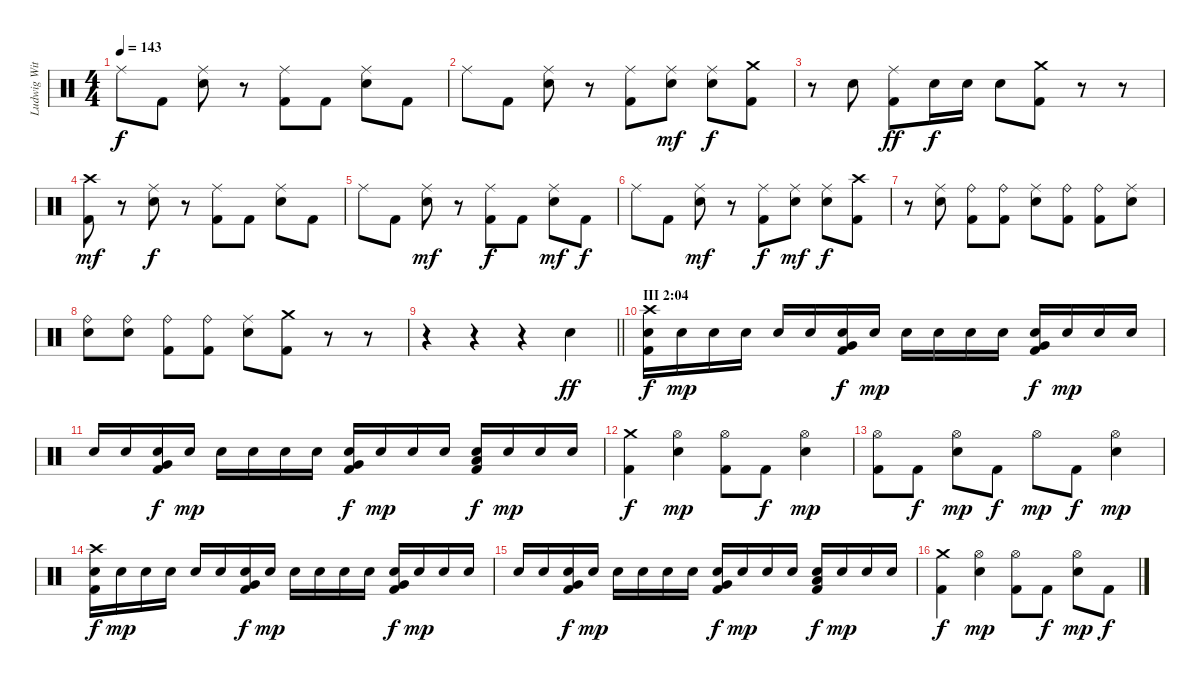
\track ("Ludwig Witt (Drums)" "Ludwig Wit") {instrument percussion}
\staff {score}
\articulation defaults
\ts (4 4)
\tempo 143
\clef neutral
\ks c "Ride (middle)".8{dy f} "Kick (hit) 2".8
("Ride (middle)" "Electric Snare (hit)").8 r.8 ("Ride (middle)" "Kick (hit) 2").8 "Kick (hit) 2".8 ("Ride (middle)" "Electric Snare (hit)").8 "Kick (hit) 2".8 |
"Ride (middle)".8 "Kick (hit) 2".8 ("Ride (middle)" "Electric Snare (hit)").8 r.8 ("Ride (middle)" "Kick (hit) 2").8 ("Ride (middle)" "Electric Snare (hit)").8{dy mf} ("Ride (middle)" "Electric Snare (hit)").8{dy f} ("Crash medium (hit)" "Kick (hit) 2").8 |
r.8 "Electric Snare (hit)".8 ("Ride (middle)" "Kick (hit) 2").8{dy ff} "Electric Snare (hit)".16{dy f} "Electric Snare (hit)".16 "Electric Snare (hit)".8 ("Crash medium (hit)" "Kick (hit) 2").8 r.8 r.8 |
("Crash high (hit)" "Kick (hit) 2").8{dy mf} r.8 ("Ride (middle)" "Electric Snare (hit)").8{dy f} r.8 ("Ride (middle)" "Kick (hit) 2").8 "Kick (hit) 2".8 ("Ride (middle)" "Electric Snare (hit)").8 "Kick (hit) 2".8 |
"Ride (middle)".8 "Kick (hit) 2".8 ("Ride (middle)" "Electric Snare (hit)").8{dy mf} r.8 ("Ride (middle)" "Kick (hit) 2").8{dy f} "Kick (hit) 2".8 ("Ride (middle)" "Electric Snare (hit)").8{dy mf} "Kick (hit) 2".8{dy f} |
"Ride (middle)".8 "Kick (hit) 2".8 ("Ride (middle)" "Electric Snare (hit)").8{dy mf} r.8 ("Ride (middle)" "Kick (hit) 2").8{dy f} ("Ride (middle)" "Electric Snare (hit)").8{dy mf} ("Ride (middle)" "Electric Snare (hit)").8{dy f} ("Crash high (hit)" "Kick (hit) 2").8 |
r.8 ("Ride (middle)" "Electric Snare (hit)").8 ("Ride (bell)" "Kick (hit) 2").8 ("Ride (bell)" "Kick (hit) 2").8 ("Ride (middle)" "Electric Snare (hit)").8 ("Ride (bell)" "Kick (hit) 2").8 ("Ride (bell)" "Kick (hit) 2").8 ("Ride (middle)" "Electric Snare (hit)").8 |
("Ride (bell)" "Electric Snare (hit)").8 ("Ride (bell)" "Electric Snare (hit)").8 ("Ride (bell)" "Kick (hit) 2").8 ("Ride (bell)" "Kick (hit) 2").8 ("Ride (middle)" "Electric Snare (hit)").8 ("Crash medium (hit)" "Kick (hit) 2").8 r.8 r.8 |
\barLineRight lightlight
r.4 r.4 r.4 "Electric Snare (hit)".4{dy ff} |
\section ("" "III 2:04")
("Crash high (hit)" "Electric Snare (hit)" "Kick (hit) 2").16{dy f} "Electric Snare (hit)".16{dy mp} "Electric Snare (hit)".16 "Electric Snare (hit)".16 "Electric Snare (hit)".16 "Electric Snare (hit)".16 ("Electric Snare (hit)" "Very Low Tom (hit)" "Kick (hit) 2").16{dy f} "Electric Snare (hit)".16{dy mp} "Electric Snare (hit)".16 "Electric Snare (hit)".16 "Electric Snare (hit)".16 "Electric Snare (hit)".16 ("Electric Snare (hit)" "Very Low Tom (hit)" "Kick (hit) 2").16{dy f} "Electric Snare (hit)".16{dy mp} "Electric Snare (hit)".16 "Electric Snare (hit)".16 |
"Electric Snare (hit)".16 "Electric Snare (hit)".16 ("Electric Snare (hit)" "Very Low Tom (hit)" "Kick (hit) 2").16{dy f} "Electric Snare (hit)".16{dy mp} "Electric Snare (hit)".16 "Electric Snare (hit)".16 "Electric Snare (hit)".16 "Electric Snare (hit)".16 ("Electric Snare (hit)" "Very Low Tom (hit)" "Kick (hit) 2").16{dy f} "Electric Snare (hit)".16{dy mp} "Electric Snare (hit)".16 "Electric Snare (hit)".16 ("Electric Snare (hit)" "Low Floor Tom (hit)" "Kick (hit) 2").16{dy f} "Electric Snare (hit)".16{dy mp} "Electric Snare (hit)".16 "Electric Snare (hit)".16 |
("Crash medium (hit)" "Kick (hit) 2").4{dy f} ("Hi-Hat (open)" "Electric Snare (hit)").4{dy mp} ("Hi-Hat (open)" "Kick (hit) 2").8 "Kick (hit) 2".8{dy f} ("Hi-Hat (open)" "Electric Snare (hit)").4{dy mp} |
("Hi-Hat (open)" "Kick (hit) 2").8 "Kick (hit) 2".8{dy f} ("Hi-Hat (open)" "Electric Snare (hit)").8{dy mp} "Kick (hit) 2".8{dy f} "Hi-Hat (open)".8{dy mp} "Kick (hit) 2".8{dy f} ("Hi-Hat (open)" "Electric Snare (hit)").4{dy mp} |
("Crash high (hit)" "Electric Snare (hit)" "Kick (hit) 2").16{dy f} "Electric Snare (hit)".16{dy mp} "Electric Snare (hit)".16 "Electric Snare (hit)".16 "Electric Snare (hit)".16 "Electric Snare (hit)".16 ("Electric Snare (hit)" "Very Low Tom (hit)" "Kick (hit) 2").16{dy f} "Electric Snare (hit)".16{dy mp} "Electric Snare (hit)".16 "Electric Snare (hit)".16 "Electric Snare (hit)".16 "Electric Snare (hit)".16 ("Electric Snare (hit)" "Very Low Tom (hit)" "Kick (hit) 2").16{dy f} "Electric Snare (hit)".16{dy mp} "Electric Snare (hit)".16 "Electric Snare (hit)".16 |
"Electric Snare (hit)".16 "Electric Snare (hit)".16 ("Electric Snare (hit)" "Very Low Tom (hit)" "Kick (hit) 2").16{dy f} "Electric Snare (hit)".16{dy mp} "Electric Snare (hit)".16 "Electric Snare (hit)".16 "Electric Snare (hit)".16 "Electric Snare (hit)".16 ("Electric Snare (hit)" "Very Low Tom (hit)" "Kick (hit) 2").16{dy f} "Electric Snare (hit)".16{dy mp} "Electric Snare (hit)".16 "Electric Snare (hit)".16 ("Electric Snare (hit)" "Low Floor Tom (hit)" "Kick (hit) 2").16{dy f} "Electric Snare (hit)".16{dy mp} "Electric Snare (hit)".16 "Electric Snare (hit)".16 |
("Crash medium (hit)" "Kick (hit) 2").4{dy f} ("Hi-Hat (open)" "Electric Snare (hit)").4{dy mp} ("Hi-Hat (open)" "Kick (hit) 2").8 "Kick (hit) 2".8{dy f} ("Hi-Hat (open)" "Electric Snare (hit)").8{dy mp} "Kick (hit) 2".8{dy f}
